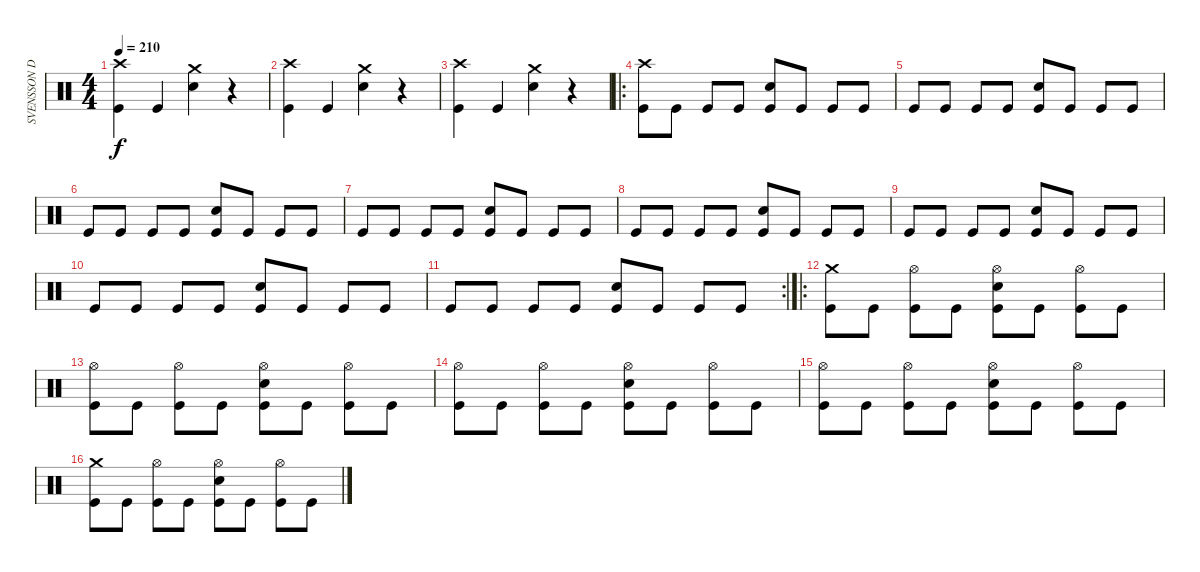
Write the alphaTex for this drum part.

\track ("SVENSSON DRUMS" "SVENSSON D") {instrument percussion}
\staff {score}
\articulation defaults
\ts (4 4)
\tempo 210
\clef neutral
\ks c
("Crash high (hit)" "Kick (hit)").4{dy f} "Kick (hit)".4 ("Crash medium (hit)" "Electric Snare (hit)").4 r.4 |
("Crash high (hit)" "Kick (hit)").4 "Kick (hit)".4 ("Crash medium (hit)" "Electric Snare (hit)").4 r.4 |
("Crash high (hit)" "Kick (hit)").4 "Kick (hit)".4 ("Crash medium (hit)" "Electric Snare (hit)").4 r.4 |
\ro
("Crash high (hit)" "Kick (hit)").8 "Kick (hit)".8 "Kick (hit)"{x}.8 "Kick (hit)".8 ("Electric Snare (hit)" "Kick (hit)").8 "Kick (hit)".8 "Kick (hit)"{x}.8 "Kick (hit)".8 |
"Kick (hit)".8 "Kick (hit)".8 "Kick (hit)"{x}.8 "Kick (hit)".8 ("Electric Snare (hit)" "Kick (hit)").8 "Kick (hit)".8 "Kick (hit)"{x}.8 "Kick (hit)".8 |
"Kick (hit)".8 "Kick (hit)".8 "Kick (hit)"{x}.8 "Kick (hit)".8 ("Electric Snare (hit)" "Kick (hit)").8 "Kick (hit)".8 "Kick (hit)"{x}.8 "Kick (hit)".8 |
"Kick (hit)".8 "Kick (hit)".8 "Kick (hit)"{x}.8 "Kick (hit)".8 ("Electric Snare (hit)" "Kick (hit)").8 "Kick (hit)".8 "Kick (hit)"{x}.8 "Kick (hit)".8 |
"Kick (hit)".8 "Kick (hit)".8 "Kick (hit)"{x}.8 "Kick (hit)".8 ("Electric Snare (hit)" "Kick (hit)").8 "Kick (hit)".8 "Kick (hit)"{x}.8 "Kick (hit)".8 |
"Kick (hit)".8 "Kick (hit)".8 "Kick (hit)"{x}.8 "Kick (hit)".8 ("Electric Snare (hit)" "Kick (hit)").8 "Kick (hit)".8 "Kick (hit)"{x}.8 "Kick (hit)".8 |
"Kick (hit)".8 "Kick (hit)".8 "Kick (hit)"{x}.8 "Kick (hit)".8 ("Electric Snare (hit)" "Kick (hit)").8 "Kick (hit)".8 "Kick (hit)"{x}.8 "Kick (hit)".8 |
\rc 2 "Kick (hit)".8 "Kick (hit)".8 "Kick (hit)"{x}.8 "Kick (hit)".8
("Electric Snare (hit)" "Kick (hit)").8 "Kick (hit)".8 "Kick (hit)"{x}.8 "Kick (hit)".8 |
\ro
("Crash medium (hit)" "Kick (hit)").8 "Kick (hit)".8 ("Hi-Hat (open)" "Kick (hit)"{x}).8 "Kick (hit)".8 ("Hi-Hat (open)" "Electric Snare (hit)" "Kick (hit)").8 "Kick (hit)".8 ("Hi-Hat (open)" "Kick (hit)"{x}).8 "Kick (hit)".8 |
("Hi-Hat (open)" "Kick (hit)").8 "Kick (hit)".8 ("Hi-Hat (open)" "Kick (hit)"{x}).8 "Kick (hit)".8 ("Hi-Hat (open)" "Electric Snare (hit)" "Kick (hit)").8 "Kick (hit)".8 ("Hi-Hat (open)" "Kick (hit)"{x}).8 "Kick (hit)".8 |
("Hi-Hat (open)" "Kick (hit)").8 "Kick (hit)".8 ("Hi-Hat (open)" "Kick (hit)"{x}).8 "Kick (hit)".8 ("Hi-Hat (open)" "Electric Snare (hit)" "Kick (hit)").8 "Kick (hit)".8 ("Hi-Hat (open)" "Kick (hit)"{x}).8 "Kick (hit)".8 |
("Hi-Hat (open)" "Kick (hit)").8 "Kick (hit)".8 ("Hi-Hat (open)" "Kick (hit)"{x}).8 "Kick (hit)".8 ("Hi-Hat (open)" "Electric Snare (hit)" "Kick (hit)").8 "Kick (hit)".8 ("Hi-Hat (open)" "Kick (hit)"{x}).8 "Kick (hit)".8 |
("Crash medium (hit)" "Kick (hit)").8 "Kick (hit)".8 ("Hi-Hat (open)" "Kick (hit)"{x}).8 "Kick (hit)".8 ("Hi-Hat (open)" "Electric Snare (hit)" "Kick (hit)").8 "Kick (hit)".8 ("Hi-Hat (open)" "Kick (hit)"{x}).8 "Kick (hit)".8
